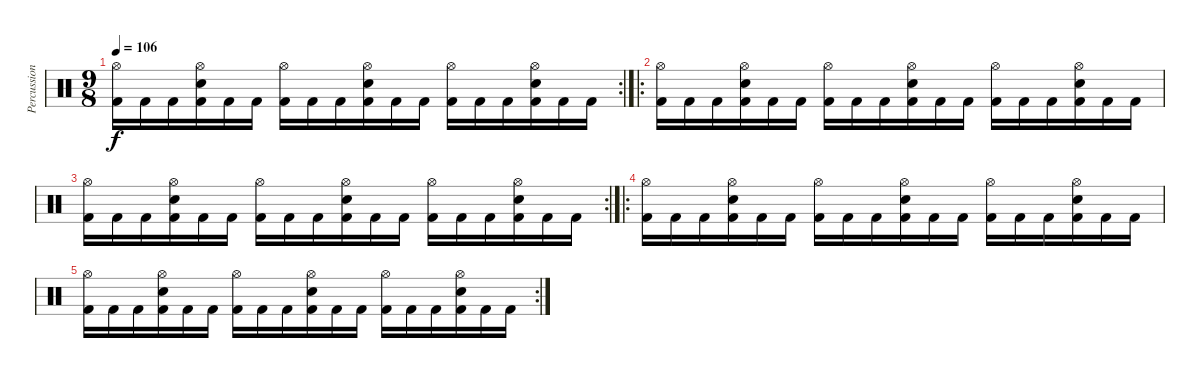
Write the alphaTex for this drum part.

\track ("Percussion" "Percussion") {instrument percussion}
\staff {score}
\articulation defaults
\rc 2
\ts (9 8)
\tempo 106
\clef neutral
\ks c
("Hi-Hat (open)" "Kick (hit) 2").16{dy f} "Kick (hit) 2".16 "Kick (hit) 2".16 ("Hi-Hat (open)" "Electric Snare (hit)" "Kick (hit) 2").16 "Kick (hit) 2".16 "Kick (hit) 2".16 ("Hi-Hat (open)" "Kick (hit) 2").16 "Kick (hit) 2".16 "Kick (hit) 2".16 ("Hi-Hat (open)" "Electric Snare (hit)" "Kick (hit) 2").16 "Kick (hit) 2".16 "Kick (hit) 2".16 ("Hi-Hat (open)" "Kick (hit) 2").16 "Kick (hit) 2".16 "Kick (hit) 2".16 ("Hi-Hat (open)" "Electric Snare (hit)" "Kick (hit) 2").16 "Kick (hit) 2".16 "Kick (hit) 2".16 |
\ro
("Hi-Hat (open)" "Kick (hit) 2").16 "Kick (hit) 2".16 "Kick (hit) 2".16 ("Hi-Hat (open)" "Electric Snare (hit)" "Kick (hit) 2").16 "Kick (hit) 2".16 "Kick (hit) 2".16 ("Hi-Hat (open)" "Kick (hit) 2").16 "Kick (hit) 2".16 "Kick (hit) 2".16 ("Hi-Hat (open)" "Electric Snare (hit)" "Kick (hit) 2").16 "Kick (hit) 2".16 "Kick (hit) 2".16 ("Hi-Hat (open)" "Kick (hit) 2").16 "Kick (hit) 2".16 "Kick (hit) 2".16 ("Hi-Hat (open)" "Electric Snare (hit)" "Kick (hit) 2").16 "Kick (hit) 2".16 "Kick (hit) 2".16 |
\rc 2
("Hi-Hat (open)" "Kick (hit) 2").16 "Kick (hit) 2".16 "Kick (hit) 2".16 ("Hi-Hat (open)" "Electric Snare (hit)" "Kick (hit) 2").16 "Kick (hit) 2".16 "Kick (hit) 2".16 ("Hi-Hat (open)" "Kick (hit) 2").16 "Kick (hit) 2".16 "Kick (hit) 2".16 ("Hi-Hat (open)" "Electric Snare (hit)" "Kick (hit) 2").16 "Kick (hit) 2".16 "Kick (hit) 2".16 ("Hi-Hat (open)" "Kick (hit) 2").16 "Kick (hit) 2".16 "Kick (hit) 2".16 ("Hi-Hat (open)" "Electric Snare (hit)" "Kick (hit) 2").16 "Kick (hit) 2".16 "Kick (hit) 2".16 |
\ro
("Hi-Hat (open)" "Kick (hit) 2").16 "Kick (hit) 2".16 "Kick (hit) 2".16 ("Hi-Hat (open)" "Electric Snare (hit)" "Kick (hit) 2").16 "Kick (hit) 2".16 "Kick (hit) 2".16 ("Hi-Hat (open)" "Kick (hit) 2").16 "Kick (hit) 2".16 "Kick (hit) 2".16 ("Hi-Hat (open)" "Electric Snare (hit)" "Kick (hit) 2").16 "Kick (hit) 2".16 "Kick (hit) 2".16 ("Hi-Hat (open)" "Kick (hit) 2").16 "Kick (hit) 2".16 "Kick (hit) 2".16 ("Hi-Hat (open)" "Electric Snare (hit)" "Kick (hit) 2").16 "Kick (hit) 2".16 "Kick (hit) 2".16 |
\rc 2
("Hi-Hat (open)" "Kick (hit) 2").16 "Kick (hit) 2".16 "Kick (hit) 2".16 ("Hi-Hat (open)" "Electric Snare (hit)" "Kick (hit) 2").16 "Kick (hit) 2".16 "Kick (hit) 2".16 ("Hi-Hat (open)" "Kick (hit) 2").16 "Kick (hit) 2".16 "Kick (hit) 2".16 ("Hi-Hat (open)" "Electric Snare (hit)" "Kick (hit) 2").16 "Kick (hit) 2".16 "Kick (hit) 2".16 ("Hi-Hat (open)" "Kick (hit) 2").16 "Kick (hit) 2".16 "Kick (hit) 2".16 ("Hi-Hat (open)" "Electric Snare (hit)" "Kick (hit) 2").16 "Kick (hit) 2".16 "Kick (hit) 2".16
